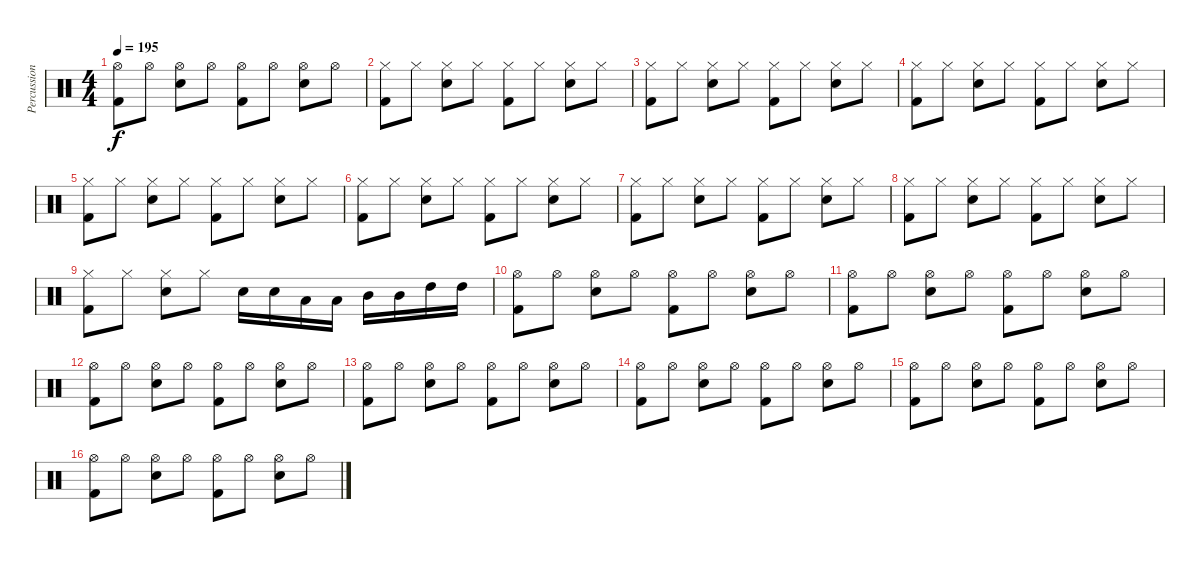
\track ("Percussions" "Percussion") {instrument percussion}
\staff {score}
\articulation defaults
\ts (4 4)
\tempo 195
\clef neutral
\ks c
("Hi-Hat (open)" "Kick (hit) 2").8{dy f} "Hi-Hat (open)".8 ("Hi-Hat (open)" "Electric Snare (hit)").8 "Hi-Hat (open)".8 ("Hi-Hat (open)" "Kick (hit) 2").8 "Hi-Hat (open)".8 ("Hi-Hat (open)" "Electric Snare (hit)").8 "Hi-Hat (open)".8 |
("Hi-Hat (closed)" "Kick (hit) 2").8 "Hi-Hat (closed)".8 ("Hi-Hat (closed)" "Electric Snare (hit)").8 "Hi-Hat (closed)".8 ("Hi-Hat (closed)" "Kick (hit) 2").8 "Hi-Hat (closed)".8 ("Hi-Hat (closed)" "Electric Snare (hit)").8 "Hi-Hat (closed)".8 |
("Hi-Hat (closed)" "Kick (hit) 2").8 "Hi-Hat (closed)".8 ("Hi-Hat (closed)" "Electric Snare (hit)").8 "Hi-Hat (closed)".8 ("Hi-Hat (closed)" "Kick (hit) 2").8 "Hi-Hat (closed)".8 ("Hi-Hat (closed)" "Electric Snare (hit)").8 "Hi-Hat (closed)".8 |
("Hi-Hat (closed)" "Kick (hit) 2").8 "Hi-Hat (closed)".8 ("Hi-Hat (closed)" "Electric Snare (hit)").8 "Hi-Hat (closed)".8 ("Hi-Hat (closed)" "Kick (hit) 2").8 "Hi-Hat (closed)".8 ("Hi-Hat (closed)" "Electric Snare (hit)").8 "Hi-Hat (closed)".8 |
("Hi-Hat (closed)" "Kick (hit) 2").8 "Hi-Hat (closed)".8 ("Hi-Hat (closed)" "Electric Snare (hit)").8 "Hi-Hat (closed)".8 ("Hi-Hat (closed)" "Kick (hit) 2").8 "Hi-Hat (closed)".8 ("Hi-Hat (closed)" "Electric Snare (hit)").8 "Hi-Hat (closed)".8 |
("Hi-Hat (closed)" "Kick (hit) 2").8 "Hi-Hat (closed)".8 ("Hi-Hat (closed)" "Electric Snare (hit)").8 "Hi-Hat (closed)".8 ("Hi-Hat (closed)" "Kick (hit) 2").8 "Hi-Hat (closed)".8 ("Hi-Hat (closed)" "Electric Snare (hit)").8 "Hi-Hat (closed)".8 |
("Hi-Hat (closed)" "Kick (hit) 2").8 "Hi-Hat (closed)".8 ("Hi-Hat (closed)" "Electric Snare (hit)").8 "Hi-Hat (closed)".8 ("Hi-Hat (closed)" "Kick (hit) 2").8 "Hi-Hat (closed)".8 ("Hi-Hat (closed)" "Electric Snare (hit)").8 "Hi-Hat (closed)".8 |
("Hi-Hat (closed)" "Kick (hit) 2").8 "Hi-Hat (closed)".8 ("Hi-Hat (closed)" "Electric Snare (hit)").8 "Hi-Hat (closed)".8 ("Hi-Hat (closed)" "Kick (hit) 2").8 "Hi-Hat (closed)".8 ("Hi-Hat (closed)" "Electric Snare (hit)").8 "Hi-Hat (closed)".8 |
("Hi-Hat (closed)" "Kick (hit) 2").8 "Hi-Hat (closed)".8 ("Hi-Hat (closed)" "Electric Snare (hit)").8 "Hi-Hat (closed)".8 "Electric Snare (hit)".16 "Electric Snare (hit)".16 "Low Tom (hit)".16 "Low Tom (hit)".16 "Mid Tom (hit)".16 "Mid Tom (hit)".16 "High Tom (hit)".16 "High Tom (hit)".16 |
("Hi-Hat (open)" "Kick (hit) 2").8 "Hi-Hat (open)".8 ("Hi-Hat (open)" "Electric Snare (hit)").8 "Hi-Hat (open)".8 ("Hi-Hat (open)" "Kick (hit) 2").8 "Hi-Hat (open)".8 ("Hi-Hat (open)" "Electric Snare (hit)").8 "Hi-Hat (open)".8 |
("Hi-Hat (open)" "Kick (hit) 2").8 "Hi-Hat (open)".8 ("Hi-Hat (open)" "Electric Snare (hit)").8 "Hi-Hat (open)".8 ("Hi-Hat (open)" "Kick (hit) 2").8 "Hi-Hat (open)".8 ("Hi-Hat (open)" "Electric Snare (hit)").8 "Hi-Hat (open)".8 |
("Hi-Hat (open)" "Kick (hit) 2").8 "Hi-Hat (open)".8 ("Hi-Hat (open)" "Electric Snare (hit)").8 "Hi-Hat (open)".8 ("Hi-Hat (open)" "Kick (hit) 2").8 "Hi-Hat (open)".8 ("Hi-Hat (open)" "Electric Snare (hit)").8 "Hi-Hat (open)".8 |
("Hi-Hat (open)" "Kick (hit) 2").8 "Hi-Hat (open)".8 ("Hi-Hat (open)" "Electric Snare (hit)").8 "Hi-Hat (open)".8 ("Hi-Hat (open)" "Kick (hit) 2").8 "Hi-Hat (open)".8 ("Hi-Hat (open)" "Electric Snare (hit)").8 "Hi-Hat (open)".8 |
("Hi-Hat (open)" "Kick (hit) 2").8 "Hi-Hat (open)".8 ("Hi-Hat (open)" "Electric Snare (hit)").8 "Hi-Hat (open)".8 ("Hi-Hat (open)" "Kick (hit) 2").8 "Hi-Hat (open)".8 ("Hi-Hat (open)" "Electric Snare (hit)").8 "Hi-Hat (open)".8 |
("Hi-Hat (open)" "Kick (hit) 2").8 "Hi-Hat (open)".8 ("Hi-Hat (open)" "Electric Snare (hit)").8 "Hi-Hat (open)".8 ("Hi-Hat (open)" "Kick (hit) 2").8 "Hi-Hat (open)".8 ("Hi-Hat (open)" "Electric Snare (hit)").8 "Hi-Hat (open)".8 |
("Hi-Hat (open)" "Kick (hit) 2").8 "Hi-Hat (open)".8 ("Hi-Hat (open)" "Electric Snare (hit)").8 "Hi-Hat (open)".8 ("Hi-Hat (open)" "Kick (hit) 2").8 "Hi-Hat (open)".8 ("Hi-Hat (open)" "Electric Snare (hit)").8 "Hi-Hat (open)".8
